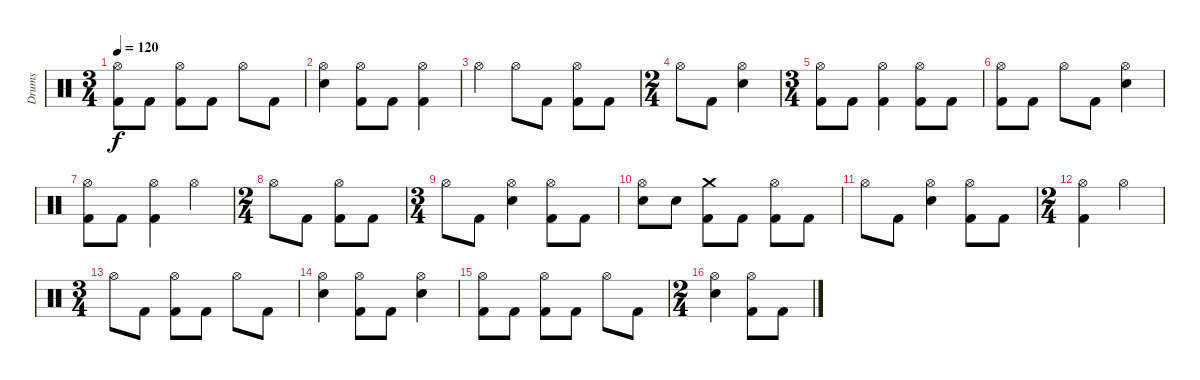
\track ("Drums" "Drums") {instrument percussion}
\staff {score}
\articulation defaults
\ts (3 4)
\tempo 120
\clef neutral
\ks c
("Hi-Hat (open)" "Kick (hit) 2").8{dy f} "Kick (hit) 2".8 ("Hi-Hat (open)" "Kick (hit) 2").8 "Kick (hit) 2".8 "Hi-Hat (open)".8 "Kick (hit) 2".8 |
("Electric Snare (hit)" "Hi-Hat (open)").4 ("Hi-Hat (open)" "Kick (hit) 2").8 "Kick (hit) 2".8 ("Hi-Hat (open)" "Kick (hit) 2").4 |
"Hi-Hat (open)".4 "Hi-Hat (open)".8 "Kick (hit) 2".8 ("Hi-Hat (open)" "Kick (hit) 2").8 "Kick (hit) 2".8 |
\ts (2 4)
"Hi-Hat (open)".8 "Kick (hit) 2".8 ("Electric Snare (hit)" "Hi-Hat (open)").4 |
\ts (3 4)
("Hi-Hat (open)" "Kick (hit) 2").8 "Kick (hit) 2".8 ("Hi-Hat (open)" "Kick (hit) 2").4 ("Hi-Hat (open)" "Kick (hit) 2").8 "Kick (hit) 2".8 |
("Hi-Hat (open)" "Kick (hit) 2").8 "Kick (hit) 2".8 "Hi-Hat (open)".8 "Kick (hit) 2".8 ("Electric Snare (hit)" "Hi-Hat (open)").4 |
("Hi-Hat (open)" "Kick (hit) 2").8 "Kick (hit) 2".8 ("Hi-Hat (open)" "Kick (hit) 2").4 "Hi-Hat (open)".4 |
\ts (2 4)
"Hi-Hat (open)".8 "Kick (hit) 2".8 ("Hi-Hat (open)" "Kick (hit) 2").8 "Kick (hit) 2".8 |
\ts (3 4)
"Hi-Hat (open)".8 "Kick (hit) 2".8 ("Electric Snare (hit)" "Hi-Hat (open)").4 ("Hi-Hat (open)" "Kick (hit) 2").8 "Kick (hit) 2".8 |
("Electric Snare (hit)" "Hi-Hat (open)").8 "Electric Snare (hit)".8 ("Crash medium (hit)" "Kick (hit) 2").8 "Kick (hit) 2".8 ("Hi-Hat (open)" "Kick (hit) 2").8 "Kick (hit) 2".8 |
"Hi-Hat (open)".8 "Kick (hit) 2".8 ("Electric Snare (hit)" "Hi-Hat (open)").4 ("Hi-Hat (open)" "Kick (hit) 2").8 "Kick (hit) 2".8 |
\ts (2 4)
("Hi-Hat (open)" "Kick (hit) 2").4 "Hi-Hat (open)".4 |
\ts (3 4)
"Hi-Hat (open)".8 "Kick (hit) 2".8 ("Hi-Hat (open)" "Kick (hit) 2").8 "Kick (hit) 2".8 "Hi-Hat (open)".8 "Kick (hit) 2".8 |
("Electric Snare (hit)" "Hi-Hat (open)").4 ("Hi-Hat (open)" "Kick (hit) 2").8 "Kick (hit) 2".8 ("Electric Snare (hit)" "Hi-Hat (open)").4 |
("Hi-Hat (open)" "Kick (hit) 2").8 "Kick (hit) 2".8 ("Hi-Hat (open)" "Kick (hit) 2").8 "Kick (hit) 2".8 "Hi-Hat (open)".8 "Kick (hit) 2".8 |
\ts (2 4)
("Electric Snare (hit)" "Hi-Hat (open)").4 ("Hi-Hat (open)" "Kick (hit) 2").8 "Kick (hit) 2".8
